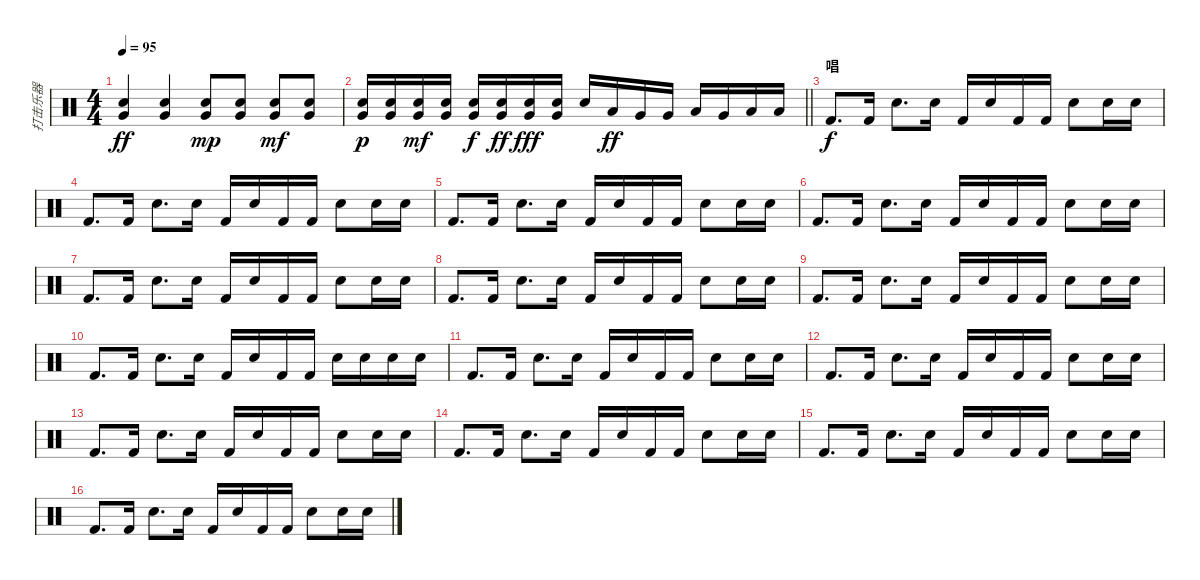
\track ("打击乐器" "打击乐器") {instrument percussion}
\staff {score}
\articulation defaults
\ts (4 4)
\tempo 95
\clef neutral
\ks c
("Electric Snare (hit)" "Very Low Tom (hit)").4{dy ff} ("Electric Snare (hit)" "Very Low Tom (hit)").4 ("Electric Snare (hit)" "Very Low Tom (hit)").8{dy mp} ("Electric Snare (hit)" "Very Low Tom (hit)").8 ("Electric Snare (hit)" "Very Low Tom (hit)").8{dy mf} ("Electric Snare (hit)" "Very Low Tom (hit)").8 |
\barLineRight lightlight
("Electric Snare (hit)" "Very Low Tom (hit)").16{dy p} ("Electric Snare (hit)" "Very Low Tom (hit)").16 ("Electric Snare (hit)" "Very Low Tom (hit)").16{dy mf} ("Electric Snare (hit)" "Very Low Tom (hit)").16 ("Electric Snare (hit)" "Very Low Tom (hit)").16{dy f} ("Electric Snare (hit)" "Very Low Tom (hit)").16{dy ff} ("Electric Snare (hit)" "Very Low Tom (hit)").16{dy fff} ("Electric Snare (hit)" "Very Low Tom (hit)").16 "Electric Snare (hit)".16 "Low Tom (hit)".16{dy ff} "Very Low Tom (hit)".16 "Very Low Tom (hit)".16 "Low Tom (hit)".16 "Very Low Tom (hit)".16 "Low Floor Tom (hit)".16 "Low Floor Tom (hit)".16 |
\section ("" "唱")
"Kick (hit) 2".8{d dy f} "Kick (hit) 2".16 "Electric Snare (hit)".8{d} "Electric Snare (hit)".16 "Kick (hit) 2".16 "Electric Snare (hit)".16 "Kick (hit) 2".16 "Kick (hit) 2".16 "Electric Snare (hit)".8 "Electric Snare (hit)".16 "Electric Snare (hit)".16 |
"Kick (hit) 2".8{d} "Kick (hit) 2".16 "Electric Snare (hit)".8{d} "Electric Snare (hit)".16 "Kick (hit) 2".16 "Electric Snare (hit)".16 "Kick (hit) 2".16 "Kick (hit) 2".16 "Electric Snare (hit)".8 "Electric Snare (hit)".16 "Electric Snare (hit)".16 |
"Kick (hit) 2".8{d} "Kick (hit) 2".16 "Electric Snare (hit)".8{d} "Electric Snare (hit)".16 "Kick (hit) 2".16 "Electric Snare (hit)".16 "Kick (hit) 2".16 "Kick (hit) 2".16 "Electric Snare (hit)".8 "Electric Snare (hit)".16 "Electric Snare (hit)".16 |
"Kick (hit) 2".8{d} "Kick (hit) 2".16 "Electric Snare (hit)".8{d} "Electric Snare (hit)".16 "Kick (hit) 2".16 "Electric Snare (hit)".16 "Kick (hit) 2".16 "Kick (hit) 2".16 "Electric Snare (hit)".8 "Electric Snare (hit)".16 "Electric Snare (hit)".16 |
"Kick (hit) 2".8{d} "Kick (hit) 2".16 "Electric Snare (hit)".8{d} "Electric Snare (hit)".16 "Kick (hit) 2".16 "Electric Snare (hit)".16 "Kick (hit) 2".16 "Kick (hit) 2".16 "Electric Snare (hit)".8 "Electric Snare (hit)".16 "Electric Snare (hit)".16 |
"Kick (hit) 2".8{d} "Kick (hit) 2".16 "Electric Snare (hit)".8{d} "Electric Snare (hit)".16 "Kick (hit) 2".16 "Electric Snare (hit)".16 "Kick (hit) 2".16 "Kick (hit) 2".16 "Electric Snare (hit)".8 "Electric Snare (hit)".16 "Electric Snare (hit)".16 |
"Kick (hit) 2".8{d} "Kick (hit) 2".16 "Electric Snare (hit)".8{d} "Electric Snare (hit)".16 "Kick (hit) 2".16 "Electric Snare (hit)".16 "Kick (hit) 2".16 "Kick (hit) 2".16 "Electric Snare (hit)".8 "Electric Snare (hit)".16 "Electric Snare (hit)".16 |
"Kick (hit) 2".8{d} "Kick (hit) 2".16 "Electric Snare (hit)".8{d} "Electric Snare (hit)".16 "Kick (hit) 2".16 "Electric Snare (hit)".16 "Kick (hit) 2".16 "Kick (hit) 2".16 "Electric Snare (hit)".16 "Electric Snare (hit)".16 "Electric Snare (hit)".16 "Electric Snare (hit)".16 |
"Kick (hit) 2".8{d} "Kick (hit) 2".16 "Electric Snare (hit)".8{d} "Electric Snare (hit)".16 "Kick (hit) 2".16 "Electric Snare (hit)".16 "Kick (hit) 2".16 "Kick (hit) 2".16 "Electric Snare (hit)".8 "Electric Snare (hit)".16 "Electric Snare (hit)".16 |
"Kick (hit) 2".8{d} "Kick (hit) 2".16 "Electric Snare (hit)".8{d} "Electric Snare (hit)".16 "Kick (hit) 2".16 "Electric Snare (hit)".16 "Kick (hit) 2".16 "Kick (hit) 2".16 "Electric Snare (hit)".8 "Electric Snare (hit)".16 "Electric Snare (hit)".16 |
"Kick (hit) 2".8{d} "Kick (hit) 2".16 "Electric Snare (hit)".8{d} "Electric Snare (hit)".16 "Kick (hit) 2".16 "Electric Snare (hit)".16 "Kick (hit) 2".16 "Kick (hit) 2".16 "Electric Snare (hit)".8 "Electric Snare (hit)".16 "Electric Snare (hit)".16 |
"Kick (hit) 2".8{d} "Kick (hit) 2".16 "Electric Snare (hit)".8{d} "Electric Snare (hit)".16 "Kick (hit) 2".16 "Electric Snare (hit)".16 "Kick (hit) 2".16 "Kick (hit) 2".16 "Electric Snare (hit)".8 "Electric Snare (hit)".16 "Electric Snare (hit)".16 |
"Kick (hit) 2".8{d} "Kick (hit) 2".16 "Electric Snare (hit)".8{d} "Electric Snare (hit)".16 "Kick (hit) 2".16 "Electric Snare (hit)".16 "Kick (hit) 2".16 "Kick (hit) 2".16 "Electric Snare (hit)".8 "Electric Snare (hit)".16 "Electric Snare (hit)".16 |
"Kick (hit) 2".8{d} "Kick (hit) 2".16 "Electric Snare (hit)".8{d} "Electric Snare (hit)".16 "Kick (hit) 2".16 "Electric Snare (hit)".16 "Kick (hit) 2".16 "Kick (hit) 2".16 "Electric Snare (hit)".8 "Electric Snare (hit)".16 "Electric Snare (hit)".16
